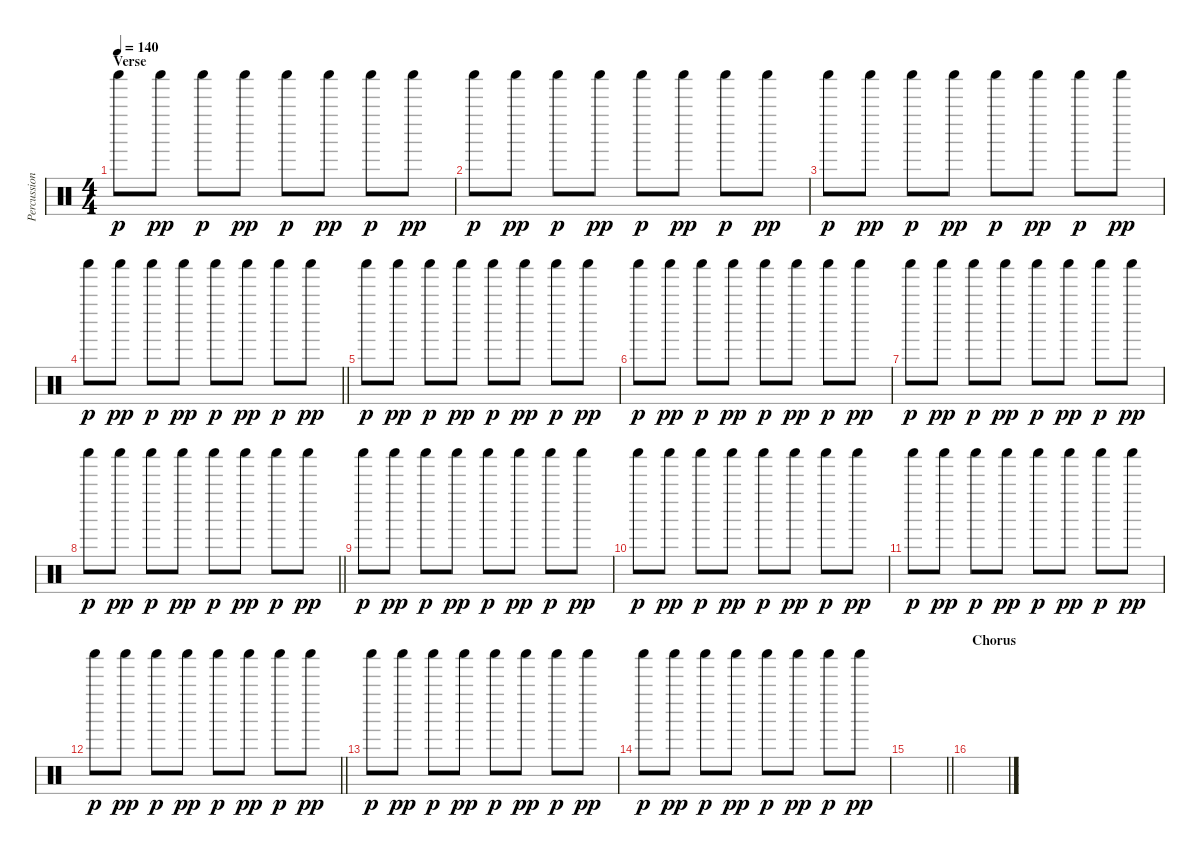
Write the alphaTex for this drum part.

\track ("Percussion" "Percussion") {instrument percussion}
\staff {score}
\articulation defaults
\ts (4 4)
\section ("" "Verse")
\tempo 140
\clef neutral
\ks c "Shaker (hit)".8{dy p} "Shaker (hit)".8{dy pp} "Shaker (hit)".8{dy p} "Shaker (hit)".8{dy pp} "Shaker (hit)".8{dy p} "Shaker (hit)".8{dy pp} "Shaker (hit)".8{dy p} "Shaker (hit)".8{dy pp}
|
"Shaker (hit)".8{dy p} "Shaker (hit)".8{dy pp} "Shaker (hit)".8{dy p} "Shaker (hit)".8{dy pp} "Shaker (hit)".8{dy p} "Shaker (hit)".8{dy pp} "Shaker (hit)".8{dy p} "Shaker (hit)".8{dy pp} |
"Shaker (hit)".8{dy p} "Shaker (hit)".8{dy pp} "Shaker (hit)".8{dy p} "Shaker (hit)".8{dy pp} "Shaker (hit)".8{dy p} "Shaker (hit)".8{dy pp} "Shaker (hit)".8{dy p} "Shaker (hit)".8{dy pp} |
\barLineRight lightlight "Shaker (hit)".8{dy p} "Shaker (hit)".8{dy pp} "Shaker (hit)".8{dy p} "Shaker (hit)".8{dy pp} "Shaker (hit)".8{dy p} "Shaker (hit)".8{dy pp} "Shaker (hit)".8{dy p} "Shaker (hit)".8{dy pp}
|
"Shaker (hit)".8{dy p} "Shaker (hit)".8{dy pp} "Shaker (hit)".8{dy p} "Shaker (hit)".8{dy pp} "Shaker (hit)".8{dy p} "Shaker (hit)".8{dy pp} "Shaker (hit)".8{dy p} "Shaker (hit)".8{dy pp} |
"Shaker (hit)".8{dy p} "Shaker (hit)".8{dy pp} "Shaker (hit)".8{dy p} "Shaker (hit)".8{dy pp} "Shaker (hit)".8{dy p} "Shaker (hit)".8{dy pp} "Shaker (hit)".8{dy p} "Shaker (hit)".8{dy pp} |
"Shaker (hit)".8{dy p} "Shaker (hit)".8{dy pp} "Shaker (hit)".8{dy p} "Shaker (hit)".8{dy pp} "Shaker (hit)".8{dy p} "Shaker (hit)".8{dy pp} "Shaker (hit)".8{dy p} "Shaker (hit)".8{dy pp} |
\barLineRight lightlight "Shaker (hit)".8{dy p} "Shaker (hit)".8{dy pp} "Shaker (hit)".8{dy p} "Shaker (hit)".8{dy pp} "Shaker (hit)".8{dy p} "Shaker (hit)".8{dy pp} "Shaker (hit)".8{dy p} "Shaker (hit)".8{dy pp}
|
"Shaker (hit)".8{dy p} "Shaker (hit)".8{dy pp} "Shaker (hit)".8{dy p} "Shaker (hit)".8{dy pp} "Shaker (hit)".8{dy p} "Shaker (hit)".8{dy pp} "Shaker (hit)".8{dy p} "Shaker (hit)".8{dy pp} |
"Shaker (hit)".8{dy p} "Shaker (hit)".8{dy pp} "Shaker (hit)".8{dy p} "Shaker (hit)".8{dy pp} "Shaker (hit)".8{dy p} "Shaker (hit)".8{dy pp} "Shaker (hit)".8{dy p} "Shaker (hit)".8{dy pp} |
"Shaker (hit)".8{dy p} "Shaker (hit)".8{dy pp} "Shaker (hit)".8{dy p} "Shaker (hit)".8{dy pp} "Shaker (hit)".8{dy p} "Shaker (hit)".8{dy pp} "Shaker (hit)".8{dy p} "Shaker (hit)".8{dy pp} |
\barLineRight lightlight "Shaker (hit)".8{dy p} "Shaker (hit)".8{dy pp} "Shaker (hit)".8{dy p} "Shaker (hit)".8{dy pp} "Shaker (hit)".8{dy p} "Shaker (hit)".8{dy pp} "Shaker (hit)".8{dy p} "Shaker (hit)".8{dy pp}
|
"Shaker (hit)".8{dy p} "Shaker (hit)".8{dy pp} "Shaker (hit)".8{dy p} "Shaker (hit)".8{dy pp} "Shaker (hit)".8{dy p} "Shaker (hit)".8{dy pp} "Shaker (hit)".8{dy p} "Shaker (hit)".8{dy pp} |
"Shaker (hit)".8{dy p} "Shaker (hit)".8{dy pp} "Shaker (hit)".8{dy p} "Shaker (hit)".8{dy pp} "Shaker (hit)".8{dy p} "Shaker (hit)".8{dy pp} "Shaker (hit)".8{dy p} "Shaker (hit)".8{dy pp} |
\barLineRight lightlight
|
\section ("" "Chorus")
